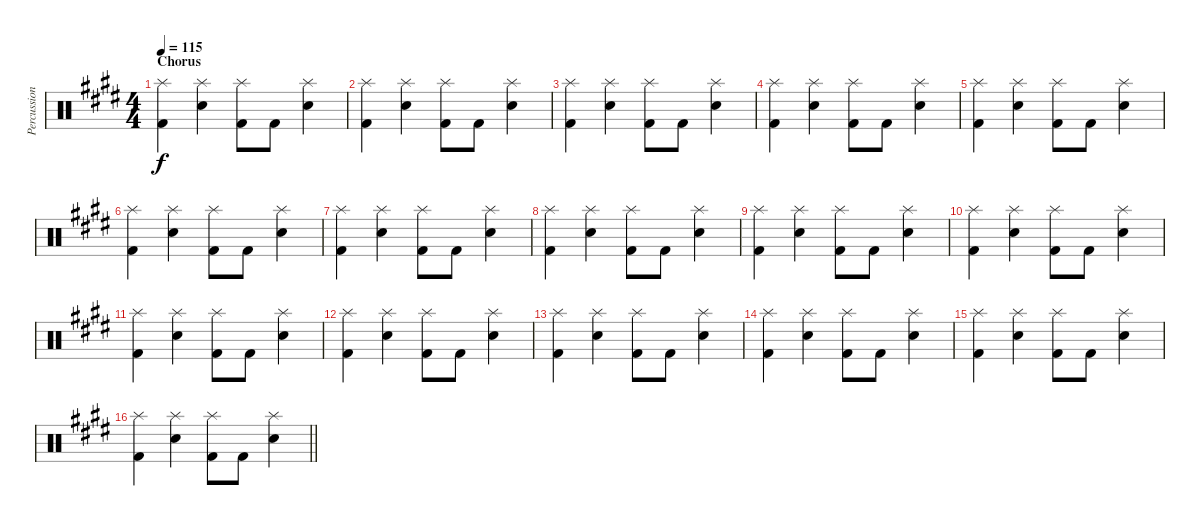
\track ("Percussion" "Percussion") {instrument percussion}
\staff {score}
\articulation defaults
\ts (4 4)
\section ("" "Chorus")
\tempo 115
\clef neutral
\ks e
("Kick (hit) 2" "Splash (hit)").4{dy f} ("Electric Snare (hit)" "Splash (hit)").4 ("Kick (hit) 2" "Splash (hit)").8 "Kick (hit) 2".8 ("Electric Snare (hit)" "Splash (hit)").4 |
("Kick (hit) 2" "Splash (hit)").4 ("Electric Snare (hit)" "Splash (hit)").4 ("Kick (hit) 2" "Splash (hit)").8 "Kick (hit) 2".8 ("Electric Snare (hit)" "Splash (hit)").4 |
("Kick (hit) 2" "Splash (hit)").4 ("Electric Snare (hit)" "Splash (hit)").4 ("Kick (hit) 2" "Splash (hit)").8 "Kick (hit) 2".8 ("Electric Snare (hit)" "Splash (hit)").4 |
("Kick (hit) 2" "Splash (hit)").4 ("Electric Snare (hit)" "Splash (hit)").4 ("Kick (hit) 2" "Splash (hit)").8 "Kick (hit) 2".8 ("Electric Snare (hit)" "Splash (hit)").4 |
("Kick (hit) 2" "Splash (hit)").4 ("Electric Snare (hit)" "Splash (hit)").4 ("Kick (hit) 2" "Splash (hit)").8 "Kick (hit) 2".8 ("Electric Snare (hit)" "Splash (hit)").4 |
("Kick (hit) 2" "Splash (hit)").4 ("Electric Snare (hit)" "Splash (hit)").4 ("Kick (hit) 2" "Splash (hit)").8 "Kick (hit) 2".8 ("Electric Snare (hit)" "Splash (hit)").4 |
("Kick (hit) 2" "Splash (hit)").4 ("Electric Snare (hit)" "Splash (hit)").4 ("Kick (hit) 2" "Splash (hit)").8 "Kick (hit) 2".8 ("Electric Snare (hit)" "Splash (hit)").4 |
("Kick (hit) 2" "Splash (hit)").4 ("Electric Snare (hit)" "Splash (hit)").4 ("Kick (hit) 2" "Splash (hit)").8 "Kick (hit) 2".8 ("Electric Snare (hit)" "Splash (hit)").4 |
("Kick (hit) 2" "Splash (hit)").4 ("Electric Snare (hit)" "Splash (hit)").4 ("Kick (hit) 2" "Splash (hit)").8 "Kick (hit) 2".8 ("Electric Snare (hit)" "Splash (hit)").4 |
("Kick (hit) 2" "Splash (hit)").4 ("Electric Snare (hit)" "Splash (hit)").4 ("Kick (hit) 2" "Splash (hit)").8 "Kick (hit) 2".8 ("Electric Snare (hit)" "Splash (hit)").4 |
("Kick (hit) 2" "Splash (hit)").4 ("Electric Snare (hit)" "Splash (hit)").4 ("Kick (hit) 2" "Splash (hit)").8 "Kick (hit) 2".8 ("Electric Snare (hit)" "Splash (hit)").4 |
("Kick (hit) 2" "Splash (hit)").4 ("Electric Snare (hit)" "Splash (hit)").4 ("Kick (hit) 2" "Splash (hit)").8 "Kick (hit) 2".8 ("Electric Snare (hit)" "Splash (hit)").4 |
("Kick (hit) 2" "Splash (hit)").4 ("Electric Snare (hit)" "Splash (hit)").4 ("Kick (hit) 2" "Splash (hit)").8 "Kick (hit) 2".8 ("Electric Snare (hit)" "Splash (hit)").4 |
("Kick (hit) 2" "Splash (hit)").4 ("Electric Snare (hit)" "Splash (hit)").4 ("Kick (hit) 2" "Splash (hit)").8 "Kick (hit) 2".8 ("Electric Snare (hit)" "Splash (hit)").4 |
("Kick (hit) 2" "Splash (hit)").4 ("Electric Snare (hit)" "Splash (hit)").4 ("Kick (hit) 2" "Splash (hit)").8 "Kick (hit) 2".8 ("Electric Snare (hit)" "Splash (hit)").4 |
\barLineRight lightlight
("Kick (hit) 2" "Splash (hit)").4 ("Electric Snare (hit)" "Splash (hit)").4 ("Kick (hit) 2" "Splash (hit)").8 "Kick (hit) 2".8 ("Electric Snare (hit)" "Splash (hit)").4
